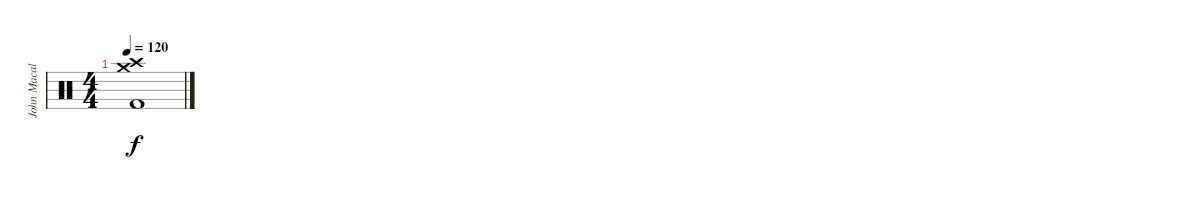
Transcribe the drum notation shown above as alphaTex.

\track ("John Macaluso" "John Macal") {instrument percussion}
\staff {score}
\articulation defaults
\ts (4 4)
\tempo 120
\clef neutral
\ks c
("Crash high (hit)" "Crash medium (hit)" "Kick (hit) 2").1{dy f}
